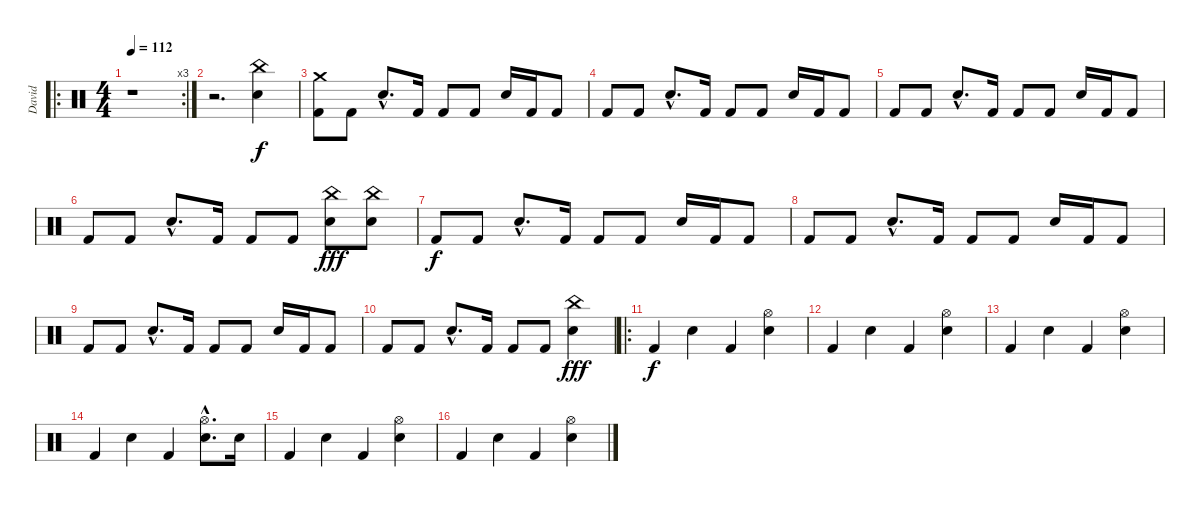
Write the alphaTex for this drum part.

\track ("David" "David") {instrument percussion}
\staff {score}
\articulation defaults
\ro
\rc 3
\ts (4 4)
\tempo 112
\clef neutral
\ks c
r.1{dy f} |
r.2{d} ("China (hit)" "Snare (hit) 2").4 |
("Crash medium (hit)" "Kick (hit) 2").8 "Kick (hit) 2".8 "Snare (hit) 2"{hac}.8{d} "Kick (hit) 2".16 "Kick (hit) 2".8 "Kick (hit) 2".8 "Snare (hit) 2".16 "Kick (hit) 2".16 "Kick (hit) 2".8 |
"Kick (hit) 2".8 "Kick (hit) 2".8 "Snare (hit) 2"{hac}.8{d} "Kick (hit) 2".16 "Kick (hit) 2".8 "Kick (hit) 2".8 "Snare (hit) 2".16 "Kick (hit) 2".16 "Kick (hit) 2".8 |
"Kick (hit) 2".8 "Kick (hit) 2".8 "Snare (hit) 2"{hac}.8{d} "Kick (hit) 2".16 "Kick (hit) 2".8 "Kick (hit) 2".8 "Snare (hit) 2".16 "Kick (hit) 2".16 "Kick (hit) 2".8 |
"Kick (hit) 2".8 "Kick (hit) 2".8 "Snare (hit) 2"{hac}.8{d} "Kick (hit) 2".16 "Kick (hit) 2".8 "Kick (hit) 2".8 ("China (hit)" "Snare (hit) 2").8{dy fff} ("China (hit)" "Snare (hit) 2").8 |
"Kick (hit) 2".8{dy f} "Kick (hit) 2".8 "Snare (hit) 2"{hac}.8{d} "Kick (hit) 2".16 "Kick (hit) 2".8 "Kick (hit) 2".8 "Snare (hit) 2".16 "Kick (hit) 2".16 "Kick (hit) 2".8 |
"Kick (hit) 2".8 "Kick (hit) 2".8 "Snare (hit) 2"{hac}.8{d} "Kick (hit) 2".16 "Kick (hit) 2".8 "Kick (hit) 2".8 "Snare (hit) 2".16 "Kick (hit) 2".16 "Kick (hit) 2".8 |
"Kick (hit) 2".8 "Kick (hit) 2".8 "Snare (hit) 2"{hac}.8{d} "Kick (hit) 2".16 "Kick (hit) 2".8 "Kick (hit) 2".8 "Snare (hit) 2".16 "Kick (hit) 2".16 "Kick (hit) 2".8 |
"Kick (hit) 2".8 "Kick (hit) 2".8 "Snare (hit) 2"{hac}.8{d} "Kick (hit) 2".16 "Kick (hit) 2".8 "Kick (hit) 2".8 ("China (hit)" "Snare (hit) 2").4{dy fff} |
\ro "Kick (hit) 2".4{dy f} "Snare (hit) 2".4 "Kick (hit) 2".4
("Hi-Hat (open)" "Snare (hit) 2").4 |
"Kick (hit) 2".4 "Snare (hit) 2".4 "Kick (hit) 2".4 ("Hi-Hat (open)" "Snare (hit) 2").4 |
"Kick (hit) 2".4 "Snare (hit) 2".4 "Kick (hit) 2".4 ("Hi-Hat (open)" "Snare (hit) 2").4 |
"Kick (hit) 2".4 "Snare (hit) 2".4 "Kick (hit) 2".4 ("Hi-Hat (open)"{hac} "Snare (hit) 2"{hac}).8{d} "Snare (hit) 2".16 |
"Kick (hit) 2".4 "Snare (hit) 2".4 "Kick (hit) 2".4 ("Hi-Hat (open)" "Snare (hit) 2").4 |
"Kick (hit) 2".4 "Snare (hit) 2".4 "Kick (hit) 2".4 ("Hi-Hat (open)" "Snare (hit) 2").4
